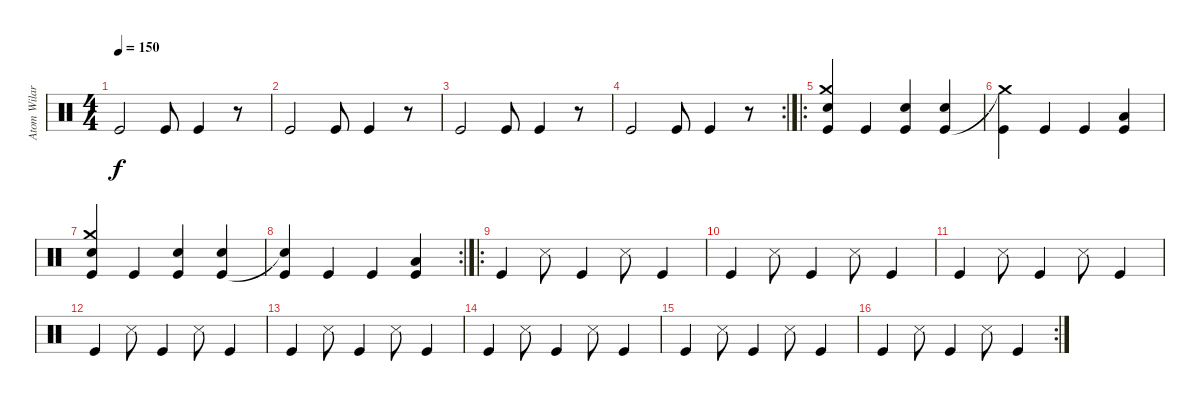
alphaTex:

\track ("Atom Wilard" "Atom Wilar") {instrument percussion}
\staff {score}
\articulation defaults
\ts (4 4)
\tempo 150
\clef neutral
\ks c "Kick (hit)".2{dy f} "Kick (hit)".8 "Kick (hit)".4
r.8 |
"Kick (hit)".2 "Kick (hit)".8 "Kick (hit)".4 r.8 |
"Kick (hit)".2 "Kick (hit)".8 "Kick (hit)".4 r.8 |
\rc 2 "Kick (hit)".2 "Kick (hit)".8 "Kick (hit)".4
r.8 |
\ro
("Crash medium (hit)" "Kick (hit)" "Snare (hit) 2").4 "Kick (hit)".4 ("Kick (hit)" "Snare (hit) 2").4 ("Kick (hit)" "Snare (hit) 2").4 |
("Crash medium (hit)"{t} "Kick (hit)").4 "Kick (hit)".4 "Kick (hit)".4 ("Kick (hit)" "Low Tom (hit)").4 |
("Crash medium (hit)" "Kick (hit)" "Snare (hit) 2").4 "Kick (hit)".4 ("Kick (hit)" "Snare (hit) 2").4 ("Kick (hit)" "Snare (hit) 2").4 |
\rc 2
("Snare (hit)"{t} "Kick (hit)").4 "Kick (hit)".4 "Kick (hit)".4 ("Kick (hit)" "Low Tom (hit)").4 |
\ro "Kick (hit)".4 "Snare (side stick) 3".8 "Kick (hit)".4 "Snare (side stick) 3".8 "Kick (hit)".4
|
"Kick (hit)".4 "Snare (side stick) 3".8 "Kick (hit)".4 "Snare (side stick) 3".8 "Kick (hit)".4 |
"Kick (hit)".4 "Snare (side stick) 3".8 "Kick (hit)".4 "Snare (side stick) 3".8 "Kick (hit)".4 |
"Kick (hit)".4 "Snare (side stick) 3".8 "Kick (hit)".4 "Snare (side stick) 3".8 "Kick (hit)".4 |
"Kick (hit)".4 "Snare (side stick) 3".8 "Kick (hit)".4 "Snare (side stick) 3".8 "Kick (hit)".4 |
"Kick (hit)".4 "Snare (side stick) 3".8 "Kick (hit)".4 "Snare (side stick) 3".8 "Kick (hit)".4 |
"Kick (hit)".4 "Snare (side stick) 3".8 "Kick (hit)".4 "Snare (side stick) 3".8 "Kick (hit)".4 |
\rc 2 "Kick (hit)".4 "Snare (side stick) 3".8 "Kick (hit)".4 "Snare (side stick) 3".8 "Kick (hit)".4
